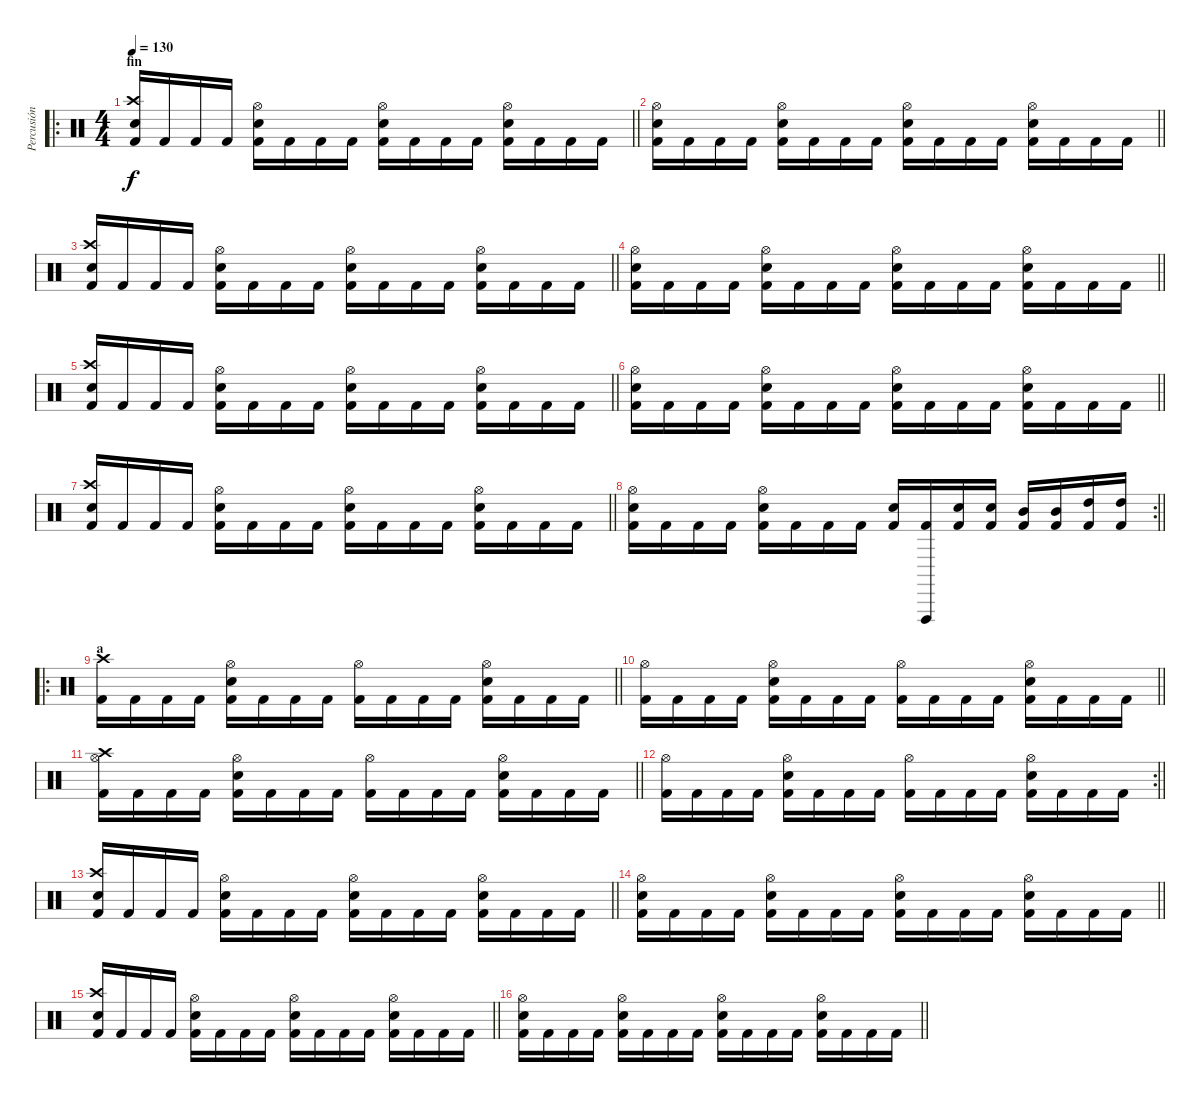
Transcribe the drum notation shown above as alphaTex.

\track ("Percusión" "Percusión") {mute instrument percussion}
\staff {score}
\articulation defaults
\ro
\ts (4 4)
\section ("" "fin")
\tempo 130
\clef neutral
\barLineRight lightlight
\ks c
("Electric Snare (hit)" "Crash high (hit)" "Kick (hit) 2").16{dy f} "Kick (hit) 2".16 "Kick (hit) 2".16 "Kick (hit) 2".16 ("Electric Snare (hit)" "Hi-Hat (open)" "Kick (hit) 2").16 "Kick (hit) 2".16 "Kick (hit) 2".16 "Kick (hit) 2".16 ("Kick (hit) 2" "Hi-Hat (open)" "Electric Snare (hit)").16 "Kick (hit) 2".16 "Kick (hit) 2".16 "Kick (hit) 2".16 ("Electric Snare (hit)" "Hi-Hat (open)" "Kick (hit) 2").16 "Kick (hit) 2".16 "Kick (hit) 2".16 "Kick (hit) 2".16 |
\barLineRight lightlight
("Hi-Hat (open)" "Electric Snare (hit)" "Kick (hit) 2").16 "Kick (hit) 2".16 "Kick (hit) 2".16 "Kick (hit) 2".16 ("Electric Snare (hit)" "Hi-Hat (open)" "Kick (hit) 2").16 "Kick (hit) 2".16 "Kick (hit) 2".16 "Kick (hit) 2".16 ("Kick (hit) 2" "Hi-Hat (open)" "Electric Snare (hit)").16 "Kick (hit) 2".16 "Kick (hit) 2".16 "Kick (hit) 2".16 ("Electric Snare (hit)" "Hi-Hat (open)" "Kick (hit) 2").16 "Kick (hit) 2".16 "Kick (hit) 2".16 "Kick (hit) 2".16 |
\barLineRight lightlight
("Electric Snare (hit)" "Crash high (hit)" "Kick (hit) 2").16 "Kick (hit) 2".16 "Kick (hit) 2".16 "Kick (hit) 2".16 ("Electric Snare (hit)" "Hi-Hat (open)" "Kick (hit) 2").16 "Kick (hit) 2".16 "Kick (hit) 2".16 "Kick (hit) 2".16 ("Kick (hit) 2" "Hi-Hat (open)" "Electric Snare (hit)").16 "Kick (hit) 2".16 "Kick (hit) 2".16 "Kick (hit) 2".16 ("Electric Snare (hit)" "Hi-Hat (open)" "Kick (hit) 2").16 "Kick (hit) 2".16 "Kick (hit) 2".16 "Kick (hit) 2".16 |
\barLineRight lightlight
("Hi-Hat (open)" "Electric Snare (hit)" "Kick (hit) 2").16 "Kick (hit) 2".16 "Kick (hit) 2".16 "Kick (hit) 2".16 ("Electric Snare (hit)" "Hi-Hat (open)" "Kick (hit) 2").16 "Kick (hit) 2".16 "Kick (hit) 2".16 "Kick (hit) 2".16 ("Kick (hit) 2" "Hi-Hat (open)" "Electric Snare (hit)").16 "Kick (hit) 2".16 "Kick (hit) 2".16 "Kick (hit) 2".16 ("Electric Snare (hit)" "Hi-Hat (open)" "Kick (hit) 2").16 "Kick (hit) 2".16 "Kick (hit) 2".16 "Kick (hit) 2".16 |
\barLineRight lightlight
("Electric Snare (hit)" "Crash high (hit)" "Kick (hit) 2").16 "Kick (hit) 2".16 "Kick (hit) 2".16 "Kick (hit) 2".16 ("Electric Snare (hit)" "Hi-Hat (open)" "Kick (hit) 2").16 "Kick (hit) 2".16 "Kick (hit) 2".16 "Kick (hit) 2".16 ("Kick (hit) 2" "Hi-Hat (open)" "Electric Snare (hit)").16 "Kick (hit) 2".16 "Kick (hit) 2".16 "Kick (hit) 2".16 ("Electric Snare (hit)" "Hi-Hat (open)" "Kick (hit) 2").16 "Kick (hit) 2".16 "Kick (hit) 2".16 "Kick (hit) 2".16 |
\barLineRight lightlight
("Hi-Hat (open)" "Electric Snare (hit)" "Kick (hit) 2").16 "Kick (hit) 2".16 "Kick (hit) 2".16 "Kick (hit) 2".16 ("Electric Snare (hit)" "Hi-Hat (open)" "Kick (hit) 2").16 "Kick (hit) 2".16 "Kick (hit) 2".16 "Kick (hit) 2".16 ("Kick (hit) 2" "Hi-Hat (open)" "Electric Snare (hit)").16 "Kick (hit) 2".16 "Kick (hit) 2".16 "Kick (hit) 2".16 ("Electric Snare (hit)" "Hi-Hat (open)" "Kick (hit) 2").16 "Kick (hit) 2".16 "Kick (hit) 2".16 "Kick (hit) 2".16 |
\barLineRight lightlight
("Electric Snare (hit)" "Crash high (hit)" "Kick (hit) 2").16 "Kick (hit) 2".16 "Kick (hit) 2".16 "Kick (hit) 2".16 ("Electric Snare (hit)" "Hi-Hat (open)" "Kick (hit) 2").16 "Kick (hit) 2".16 "Kick (hit) 2".16 "Kick (hit) 2".16 ("Kick (hit) 2" "Hi-Hat (open)" "Electric Snare (hit)").16 "Kick (hit) 2".16 "Kick (hit) 2".16 "Kick (hit) 2".16 ("Electric Snare (hit)" "Hi-Hat (open)" "Kick (hit) 2").16 "Kick (hit) 2".16 "Kick (hit) 2".16 "Kick (hit) 2".16 |
\rc 2
\barLineRight lightlight
("Hi-Hat (open)" "Electric Snare (hit)" "Kick (hit) 2").16 "Kick (hit) 2".16 "Kick (hit) 2".16 "Kick (hit) 2".16 ("Electric Snare (hit)" "Hi-Hat (open)" "Kick (hit) 2").16 "Kick (hit) 2".16 "Kick (hit) 2".16 "Kick (hit) 2".16 ("Kick (hit) 2" "Electric Snare (hit)").16 ("Kick (hit) 2" "Vibraslap (hit)").16 ("Kick (hit) 2" "Electric Snare (hit)").16 ("Kick (hit) 2" "Electric Snare (hit)").16 ("Mid Tom (hit)" "Kick (hit) 2").16 ("Kick (hit) 2" "Mid Tom (hit)").16 ("Kick (hit) 2" "High Tom (hit)").16 ("Kick (hit) 2" "High Tom (hit)").16 |
\ro
\section ("" "a")
\barLineRight lightlight
("Kick (hit) 2" "Crash high (hit)").16 "Kick (hit) 2".16 "Kick (hit) 2".16 "Kick (hit) 2".16 ("Kick (hit) 2" "Electric Snare (hit)" "Hi-Hat (open)").16 "Kick (hit) 2".16 "Kick (hit) 2".16 "Kick (hit) 2".16 ("Kick (hit) 2" "Hi-Hat (open)").16 "Kick (hit) 2".16 "Kick (hit) 2".16 "Kick (hit) 2".16 ("Kick (hit) 2" "Electric Snare (hit)" "Hi-Hat (open)").16 "Kick (hit) 2".16 "Kick (hit) 2".16 "Kick (hit) 2".16 |
\barLineRight lightlight
("Kick (hit) 2" "Hi-Hat (open)").16 "Kick (hit) 2".16 "Kick (hit) 2".16 "Kick (hit) 2".16 ("Kick (hit) 2" "Electric Snare (hit)" "Hi-Hat (open)").16 "Kick (hit) 2".16 "Kick (hit) 2".16 "Kick (hit) 2".16 ("Kick (hit) 2" "Hi-Hat (open)").16 "Kick (hit) 2".16 "Kick (hit) 2".16 "Kick (hit) 2".16 ("Kick (hit) 2" "Electric Snare (hit)" "Hi-Hat (open)").16 "Kick (hit) 2".16 "Kick (hit) 2".16 "Kick (hit) 2".16 |
\barLineRight lightlight
("Kick (hit) 2" "Hi-Hat (open)" "Crash high (hit)").16 "Kick (hit) 2".16 "Kick (hit) 2".16 "Kick (hit) 2".16 ("Kick (hit) 2" "Electric Snare (hit)" "Hi-Hat (open)").16 "Kick (hit) 2".16 "Kick (hit) 2".16 "Kick (hit) 2".16 ("Kick (hit) 2" "Hi-Hat (open)").16 "Kick (hit) 2".16 "Kick (hit) 2".16 "Kick (hit) 2".16 ("Kick (hit) 2" "Electric Snare (hit)" "Hi-Hat (open)").16 "Kick (hit) 2".16 "Kick (hit) 2".16 "Kick (hit) 2".16 |
\rc 2
\barLineRight lightlight
("Kick (hit) 2" "Hi-Hat (open)").16 "Kick (hit) 2".16 "Kick (hit) 2".16 "Kick (hit) 2".16 ("Kick (hit) 2" "Electric Snare (hit)" "Hi-Hat (open)").16 "Kick (hit) 2".16 "Kick (hit) 2".16 "Kick (hit) 2".16 ("Kick (hit) 2" "Hi-Hat (open)").16 "Kick (hit) 2".16 "Kick (hit) 2".16 "Kick (hit) 2".16 ("Kick (hit) 2" "Electric Snare (hit)" "Hi-Hat (open)").16 "Kick (hit) 2".16 "Kick (hit) 2".16 "Kick (hit) 2".16 |
\barLineRight lightlight
("Electric Snare (hit)" "Crash high (hit)" "Kick (hit) 2").16 "Kick (hit) 2".16 "Kick (hit) 2".16 "Kick (hit) 2".16 ("Electric Snare (hit)" "Hi-Hat (open)" "Kick (hit) 2").16 "Kick (hit) 2".16 "Kick (hit) 2".16 "Kick (hit) 2".16 ("Kick (hit) 2" "Hi-Hat (open)" "Electric Snare (hit)").16 "Kick (hit) 2".16 "Kick (hit) 2".16 "Kick (hit) 2".16 ("Electric Snare (hit)" "Hi-Hat (open)" "Kick (hit) 2").16 "Kick (hit) 2".16 "Kick (hit) 2".16 "Kick (hit) 2".16 |
\barLineRight lightlight
("Hi-Hat (open)" "Electric Snare (hit)" "Kick (hit) 2").16 "Kick (hit) 2".16 "Kick (hit) 2".16 "Kick (hit) 2".16 ("Electric Snare (hit)" "Hi-Hat (open)" "Kick (hit) 2").16 "Kick (hit) 2".16 "Kick (hit) 2".16 "Kick (hit) 2".16 ("Kick (hit) 2" "Hi-Hat (open)" "Electric Snare (hit)").16 "Kick (hit) 2".16 "Kick (hit) 2".16 "Kick (hit) 2".16 ("Electric Snare (hit)" "Hi-Hat (open)" "Kick (hit) 2").16 "Kick (hit) 2".16 "Kick (hit) 2".16 "Kick (hit) 2".16 |
\barLineRight lightlight
("Electric Snare (hit)" "Crash high (hit)" "Kick (hit) 2").16 "Kick (hit) 2".16 "Kick (hit) 2".16 "Kick (hit) 2".16 ("Electric Snare (hit)" "Hi-Hat (open)" "Kick (hit) 2").16 "Kick (hit) 2".16 "Kick (hit) 2".16 "Kick (hit) 2".16 ("Kick (hit) 2" "Hi-Hat (open)" "Electric Snare (hit)").16 "Kick (hit) 2".16 "Kick (hit) 2".16 "Kick (hit) 2".16 ("Electric Snare (hit)" "Hi-Hat (open)" "Kick (hit) 2").16 "Kick (hit) 2".16 "Kick (hit) 2".16 "Kick (hit) 2".16 |
\barLineRight lightlight
("Hi-Hat (open)" "Electric Snare (hit)" "Kick (hit) 2").16 "Kick (hit) 2".16 "Kick (hit) 2".16 "Kick (hit) 2".16 ("Electric Snare (hit)" "Hi-Hat (open)" "Kick (hit) 2").16 "Kick (hit) 2".16 "Kick (hit) 2".16 "Kick (hit) 2".16 ("Kick (hit) 2" "Hi-Hat (open)" "Electric Snare (hit)").16 "Kick (hit) 2".16 "Kick (hit) 2".16 "Kick (hit) 2".16 ("Electric Snare (hit)" "Hi-Hat (open)" "Kick (hit) 2").16 "Kick (hit) 2".16 "Kick (hit) 2".16 "Kick (hit) 2".16
